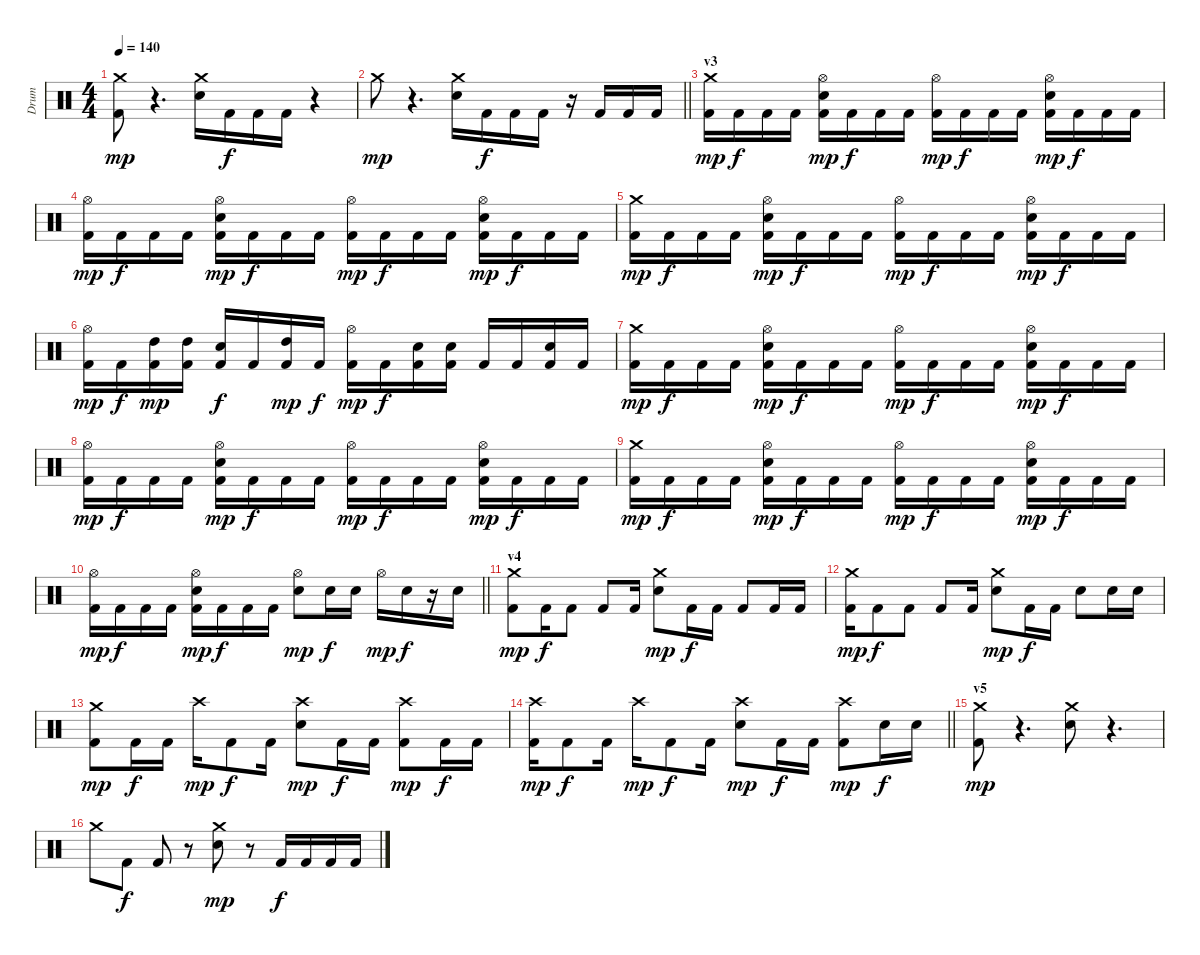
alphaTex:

\track ("Drum" "Drum") {instrument percussion}
\staff {score}
\articulation defaults
\ts (4 4)
\tempo 140
\clef neutral
\ks c
("Kick (hit) 2" "Crash medium (hit)").8{dy mp} r.4{d} ("Electric Snare (hit)" "Crash medium (hit)").16 "Kick (hit) 2".16{dy f} "Kick (hit) 2".16 "Kick (hit) 2".16 r.4 |
\barLineRight lightlight "Crash medium (hit)".8{dy mp}
r.4{d} ("Electric Snare (hit)" "Crash medium (hit)").16 "Kick (hit) 2".16{dy f} "Kick (hit) 2".16 "Kick (hit) 2".16 r.16 "Kick (hit) 2".16 "Kick (hit) 2".16 "Kick (hit) 2".16 |
\section ("" "v3")
("Kick (hit) 2" "Crash medium (hit)").16{dy mp} "Kick (hit) 2".16{dy f} "Kick (hit) 2".16 "Kick (hit) 2".16 ("Electric Snare (hit)" "Kick (hit) 2" "Hi-Hat (open)").16{dy mp} "Kick (hit) 2".16{dy f} "Kick (hit) 2".16 "Kick (hit) 2".16 ("Hi-Hat (open)" "Kick (hit) 2").16{dy mp} "Kick (hit) 2".16{dy f} "Kick (hit) 2".16 "Kick (hit) 2".16 ("Electric Snare (hit)" "Kick (hit) 2" "Hi-Hat (open)").16{dy mp} "Kick (hit) 2".16{dy f} "Kick (hit) 2".16 "Kick (hit) 2".16 |
("Hi-Hat (open)" "Kick (hit) 2").16{dy mp} "Kick (hit) 2".16{dy f} "Kick (hit) 2".16 "Kick (hit) 2".16 ("Kick (hit) 2" "Electric Snare (hit)" "Hi-Hat (open)").16{dy mp} "Kick (hit) 2".16{dy f} "Kick (hit) 2".16 "Kick (hit) 2".16 ("Hi-Hat (open)" "Kick (hit) 2").16{dy mp} "Kick (hit) 2".16{dy f} "Kick (hit) 2".16 "Kick (hit) 2".16 ("Electric Snare (hit)" "Kick (hit) 2" "Hi-Hat (open)").16{dy mp} "Kick (hit) 2".16{dy f} "Kick (hit) 2".16 "Kick (hit) 2".16 |
("Kick (hit) 2" "Crash medium (hit)").16{dy mp} "Kick (hit) 2".16{dy f} "Kick (hit) 2".16 "Kick (hit) 2".16 ("Electric Snare (hit)" "Kick (hit) 2" "Hi-Hat (open)").16{dy mp} "Kick (hit) 2".16{dy f} "Kick (hit) 2".16 "Kick (hit) 2".16 ("Hi-Hat (open)" "Kick (hit) 2").16{dy mp} "Kick (hit) 2".16{dy f} "Kick (hit) 2".16 "Kick (hit) 2".16 ("Electric Snare (hit)" "Kick (hit) 2" "Hi-Hat (open)").16{dy mp} "Kick (hit) 2".16{dy f} "Kick (hit) 2".16 "Kick (hit) 2".16 |
("Kick (hit) 2" "Hi-Hat (open)").16{dy mp} "Kick (hit) 2".16{dy f} ("Kick (hit) 2" "High Tom (hit)").16{dy mp} ("Kick (hit) 2" "High Tom (hit)").16 ("Kick (hit) 2" "Electric Snare (hit)").16{dy f} "Kick (hit) 2".16 ("Kick (hit) 2" "High Tom (hit)").16{dy mp} "Kick (hit) 2".16{dy f} ("Kick (hit) 2" "Hi-Hat (open)").16{dy mp} "Kick (hit) 2".16{dy f} ("Kick (hit) 2" "Electric Snare (hit)").16 ("Electric Snare (hit)" "Kick (hit) 2").16 "Kick (hit) 2".16 "Kick (hit) 2".16 ("Electric Snare (hit)" "Kick (hit) 2").16 "Kick (hit) 2".16 |
("Kick (hit) 2" "Crash medium (hit)").16{dy mp} "Kick (hit) 2".16{dy f} "Kick (hit) 2".16 "Kick (hit) 2".16 ("Electric Snare (hit)" "Kick (hit) 2" "Hi-Hat (open)").16{dy mp} "Kick (hit) 2".16{dy f} "Kick (hit) 2".16 "Kick (hit) 2".16 ("Hi-Hat (open)" "Kick (hit) 2").16{dy mp} "Kick (hit) 2".16{dy f} "Kick (hit) 2".16 "Kick (hit) 2".16 ("Electric Snare (hit)" "Kick (hit) 2" "Hi-Hat (open)").16{dy mp} "Kick (hit) 2".16{dy f} "Kick (hit) 2".16 "Kick (hit) 2".16 |
("Kick (hit) 2" "Hi-Hat (open)").16{dy mp} "Kick (hit) 2".16{dy f} "Kick (hit) 2".16 "Kick (hit) 2".16 ("Electric Snare (hit)" "Kick (hit) 2" "Hi-Hat (open)").16{dy mp} "Kick (hit) 2".16{dy f} "Kick (hit) 2".16 "Kick (hit) 2".16 ("Hi-Hat (open)" "Kick (hit) 2").16{dy mp} "Kick (hit) 2".16{dy f} "Kick (hit) 2".16 "Kick (hit) 2".16 ("Electric Snare (hit)" "Kick (hit) 2" "Hi-Hat (open)").16{dy mp} "Kick (hit) 2".16{dy f} "Kick (hit) 2".16 "Kick (hit) 2".16 |
("Kick (hit) 2" "Crash medium (hit)").16{dy mp} "Kick (hit) 2".16{dy f} "Kick (hit) 2".16 "Kick (hit) 2".16 ("Electric Snare (hit)" "Kick (hit) 2" "Hi-Hat (open)").16{dy mp} "Kick (hit) 2".16{dy f} "Kick (hit) 2".16 "Kick (hit) 2".16 ("Hi-Hat (open)" "Kick (hit) 2").16{dy mp} "Kick (hit) 2".16{dy f} "Kick (hit) 2".16 "Kick (hit) 2".16 ("Electric Snare (hit)" "Kick (hit) 2" "Hi-Hat (open)").16{dy mp} "Kick (hit) 2".16{dy f} "Kick (hit) 2".16 "Kick (hit) 2".16 |
\barLineRight lightlight
("Kick (hit) 2" "Hi-Hat (open)").16{dy mp} "Kick (hit) 2".16{dy f} "Kick (hit) 2".16 "Kick (hit) 2".16 ("Kick (hit) 2" "Electric Snare (hit)" "Hi-Hat (open)").16{dy mp} "Kick (hit) 2".16{dy f} "Kick (hit) 2".16 "Kick (hit) 2".16 ("Electric Snare (hit)" "Hi-Hat (open)").8{dy mp} "Electric Snare (hit)".16{dy f} "Electric Snare (hit)".16 "Hi-Hat (open)".16{dy mp} "Electric Snare (hit)".16{dy f} r.16 "Electric Snare (hit)".16 |
\section ("" "v4")
("Kick (hit) 2" "Crash medium (hit)").8{dy mp} "Kick (hit) 2".16{dy f} "Kick (hit) 2".8 "Kick (hit) 2".8 "Kick (hit) 2".16 ("Crash medium (hit)" "Electric Snare (hit)").8{dy mp} "Kick (hit) 2".16{dy f} "Kick (hit) 2".16 "Kick (hit) 2".8 "Kick (hit) 2".16 "Kick (hit) 2".16 |
("Kick (hit) 2" "Crash medium (hit)").16{dy mp} "Kick (hit) 2".8{dy f} "Kick (hit) 2".8 "Kick (hit) 2".8 "Kick (hit) 2".16 ("Crash medium (hit)" "Electric Snare (hit)").8{dy mp} "Kick (hit) 2".16{dy f} "Kick (hit) 2".16 "Snare (hit) 2".8 "Snare (hit) 2".16 "Snare (hit) 2".16 |
("Crash medium (hit)" "Kick (hit) 2").8{dy mp} "Kick (hit) 2".16{dy f} "Kick (hit) 2".16 "Crash high (hit)".16{dy mp} "Kick (hit) 2".8{dy f} "Kick (hit) 2".16 ("Crash high (hit)" "Electric Snare (hit)").8{dy mp} "Kick (hit) 2".16{dy f} "Kick (hit) 2".16 ("Crash high (hit)" "Kick (hit) 2").8{dy mp} "Kick (hit) 2".16{dy f} "Kick (hit) 2".16 |
\barLineRight lightlight
("Kick (hit) 2" "Crash high (hit)").16{dy mp} "Kick (hit) 2".8{dy f} "Kick (hit) 2".16 "Crash high (hit)".16{dy mp} "Kick (hit) 2".8{dy f} "Kick (hit) 2".16 ("Crash high (hit)" "Electric Snare (hit)").8{dy mp} "Kick (hit) 2".16{dy f} "Kick (hit) 2".16 ("Crash high (hit)" "Kick (hit) 2").8{dy mp} "Electric Snare (hit)".16{dy f} "Electric Snare (hit)".16 |
\section ("" "v5")
("Crash medium (hit)" "Kick (hit) 2").8{dy mp} r.4{d} ("Electric Snare (hit)" "Crash medium (hit)").8 r.4{d} |
"Crash medium (hit)".8 "Kick (hit) 2".8{dy f} "Kick (hit) 2".8 r.8 ("Electric Snare (hit)" "Crash medium (hit)").8{dy mp} r.8 "Kick (hit) 2".16{dy f} "Kick (hit) 2".16 "Kick (hit) 2".16 "Kick (hit) 2".16
